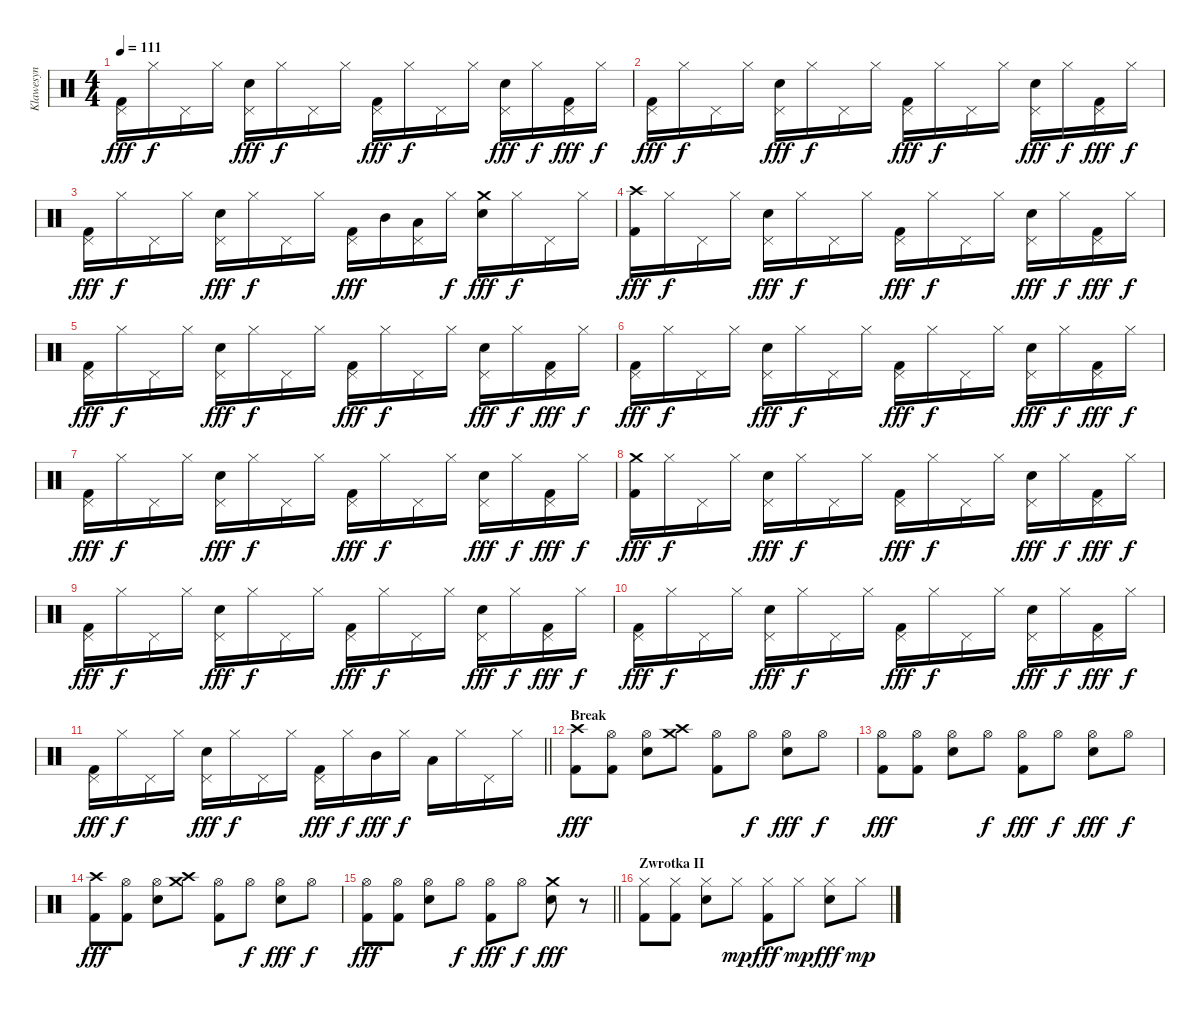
\track ("Klawesyn" "Klawesyn") {instrument percussion}
\staff {score}
\articulation defaults
\ts (4 4)
\tempo 111
\clef neutral
\ks c
("Pedal Hi-Hat (hit)" "Kick (hit) 2").16{dy fff} "Hi-Hat (closed)".16{dy f} "Pedal Hi-Hat (hit)".16 "Hi-Hat (closed)".16 ("Pedal Hi-Hat (hit)" "Snare (hit) 2").16{dy fff} "Hi-Hat (closed)".16{dy f} "Pedal Hi-Hat (hit)".16 "Hi-Hat (closed)".16 ("Pedal Hi-Hat (hit)" "Kick (hit) 2").16{dy fff} "Hi-Hat (closed)".16{dy f} "Pedal Hi-Hat (hit)".16 "Hi-Hat (closed)".16 ("Pedal Hi-Hat (hit)" "Snare (hit) 2").16{dy fff} "Hi-Hat (closed)".16{dy f} ("Pedal Hi-Hat (hit)" "Kick (hit) 2").16{dy fff} "Hi-Hat (closed)".16{dy f} |
("Pedal Hi-Hat (hit)" "Kick (hit) 2").16{dy fff} "Hi-Hat (closed)".16{dy f} "Pedal Hi-Hat (hit)".16 "Hi-Hat (closed)".16 ("Pedal Hi-Hat (hit)" "Snare (hit) 2").16{dy fff} "Hi-Hat (closed)".16{dy f} "Pedal Hi-Hat (hit)".16 "Hi-Hat (closed)".16 ("Pedal Hi-Hat (hit)" "Kick (hit) 2").16{dy fff} "Hi-Hat (closed)".16{dy f} "Pedal Hi-Hat (hit)".16 "Hi-Hat (closed)".16 ("Pedal Hi-Hat (hit)" "Snare (hit) 2").16{dy fff} "Hi-Hat (closed)".16{dy f} ("Pedal Hi-Hat (hit)" "Kick (hit) 2").16{dy fff} "Hi-Hat (closed)".16{dy f} |
("Pedal Hi-Hat (hit)" "Kick (hit) 2").16{dy fff} "Hi-Hat (closed)".16{dy f} "Pedal Hi-Hat (hit)".16 "Hi-Hat (closed)".16 ("Pedal Hi-Hat (hit)" "Snare (hit) 2").16{dy fff} "Hi-Hat (closed)".16{dy f} "Pedal Hi-Hat (hit)".16 "Hi-Hat (closed)".16 ("Pedal Hi-Hat (hit)" "Kick (hit) 2").16{dy fff} "Mid Tom (hit)".16 ("Pedal Hi-Hat (hit)" "Low Tom (hit)").16 "Hi-Hat (closed)".16{dy f} ("Crash medium (hit)" "Snare (hit) 2").16{dy fff} "Hi-Hat (closed)".16{dy f} "Pedal Hi-Hat (hit)".16 "Hi-Hat (closed)".16 |
("Crash high (hit)" "Kick (hit) 2").16{dy fff} "Hi-Hat (closed)".16{dy f} "Pedal Hi-Hat (hit)".16 "Hi-Hat (closed)".16 ("Pedal Hi-Hat (hit)" "Snare (hit) 2").16{dy fff} "Hi-Hat (closed)".16{dy f} "Pedal Hi-Hat (hit)".16 "Hi-Hat (closed)".16 ("Pedal Hi-Hat (hit)" "Kick (hit) 2").16{dy fff} "Hi-Hat (closed)".16{dy f} "Pedal Hi-Hat (hit)".16 "Hi-Hat (closed)".16 ("Pedal Hi-Hat (hit)" "Snare (hit) 2").16{dy fff} "Hi-Hat (closed)".16{dy f} ("Pedal Hi-Hat (hit)" "Kick (hit) 2").16{dy fff} "Hi-Hat (closed)".16{dy f} |
("Pedal Hi-Hat (hit)" "Kick (hit) 2").16{dy fff} "Hi-Hat (closed)".16{dy f} "Pedal Hi-Hat (hit)".16 "Hi-Hat (closed)".16 ("Pedal Hi-Hat (hit)" "Snare (hit) 2").16{dy fff} "Hi-Hat (closed)".16{dy f} "Pedal Hi-Hat (hit)".16 "Hi-Hat (closed)".16 ("Pedal Hi-Hat (hit)" "Kick (hit) 2").16{dy fff} "Hi-Hat (closed)".16{dy f} "Pedal Hi-Hat (hit)".16 "Hi-Hat (closed)".16 ("Pedal Hi-Hat (hit)" "Snare (hit) 2").16{dy fff} "Hi-Hat (closed)".16{dy f} ("Pedal Hi-Hat (hit)" "Kick (hit) 2").16{dy fff} "Hi-Hat (closed)".16{dy f} |
("Pedal Hi-Hat (hit)" "Kick (hit) 2").16{dy fff} "Hi-Hat (closed)".16{dy f} "Pedal Hi-Hat (hit)".16 "Hi-Hat (closed)".16 ("Pedal Hi-Hat (hit)" "Snare (hit) 2").16{dy fff} "Hi-Hat (closed)".16{dy f} "Pedal Hi-Hat (hit)".16 "Hi-Hat (closed)".16 ("Pedal Hi-Hat (hit)" "Kick (hit) 2").16{dy fff} "Hi-Hat (closed)".16{dy f} "Pedal Hi-Hat (hit)".16 "Hi-Hat (closed)".16 ("Pedal Hi-Hat (hit)" "Snare (hit) 2").16{dy fff} "Hi-Hat (closed)".16{dy f} ("Pedal Hi-Hat (hit)" "Kick (hit) 2").16{dy fff} "Hi-Hat (closed)".16{dy f} |
("Pedal Hi-Hat (hit)" "Kick (hit) 2").16{dy fff} "Hi-Hat (closed)".16{dy f} "Pedal Hi-Hat (hit)".16 "Hi-Hat (closed)".16 ("Pedal Hi-Hat (hit)" "Snare (hit) 2").16{dy fff} "Hi-Hat (closed)".16{dy f} "Pedal Hi-Hat (hit)".16 "Hi-Hat (closed)".16 ("Pedal Hi-Hat (hit)" "Kick (hit) 2").16{dy fff} "Hi-Hat (closed)".16{dy f} "Pedal Hi-Hat (hit)".16 "Hi-Hat (closed)".16 ("Pedal Hi-Hat (hit)" "Snare (hit) 2").16{dy fff} "Hi-Hat (closed)".16{dy f} ("Pedal Hi-Hat (hit)" "Kick (hit) 2").16{dy fff} "Hi-Hat (closed)".16{dy f} |
("Crash medium (hit)" "Kick (hit) 2").16{dy fff} "Hi-Hat (closed)".16{dy f} "Pedal Hi-Hat (hit)".16 "Hi-Hat (closed)".16 ("Pedal Hi-Hat (hit)" "Snare (hit) 2").16{dy fff} "Hi-Hat (closed)".16{dy f} "Pedal Hi-Hat (hit)".16 "Hi-Hat (closed)".16 ("Pedal Hi-Hat (hit)" "Kick (hit) 2").16{dy fff} "Hi-Hat (closed)".16{dy f} "Pedal Hi-Hat (hit)".16 "Hi-Hat (closed)".16 ("Pedal Hi-Hat (hit)" "Snare (hit) 2").16{dy fff} "Hi-Hat (closed)".16{dy f} ("Pedal Hi-Hat (hit)" "Kick (hit) 2").16{dy fff} "Hi-Hat (closed)".16{dy f} |
("Pedal Hi-Hat (hit)" "Kick (hit) 2").16{dy fff} "Hi-Hat (closed)".16{dy f} "Pedal Hi-Hat (hit)".16 "Hi-Hat (closed)".16 ("Pedal Hi-Hat (hit)" "Snare (hit) 2").16{dy fff} "Hi-Hat (closed)".16{dy f} "Pedal Hi-Hat (hit)".16 "Hi-Hat (closed)".16 ("Pedal Hi-Hat (hit)" "Kick (hit) 2").16{dy fff} "Hi-Hat (closed)".16{dy f} "Pedal Hi-Hat (hit)".16 "Hi-Hat (closed)".16 ("Pedal Hi-Hat (hit)" "Snare (hit) 2").16{dy fff} "Hi-Hat (closed)".16{dy f} ("Pedal Hi-Hat (hit)" "Kick (hit) 2").16{dy fff} "Hi-Hat (closed)".16{dy f} |
("Pedal Hi-Hat (hit)" "Kick (hit) 2").16{dy fff} "Hi-Hat (closed)".16{dy f} "Pedal Hi-Hat (hit)".16 "Hi-Hat (closed)".16 ("Pedal Hi-Hat (hit)" "Snare (hit) 2").16{dy fff} "Hi-Hat (closed)".16{dy f} "Pedal Hi-Hat (hit)".16 "Hi-Hat (closed)".16 ("Pedal Hi-Hat (hit)" "Kick (hit) 2").16{dy fff} "Hi-Hat (closed)".16{dy f} "Pedal Hi-Hat (hit)".16 "Hi-Hat (closed)".16 ("Pedal Hi-Hat (hit)" "Snare (hit) 2").16{dy fff} "Hi-Hat (closed)".16{dy f} ("Pedal Hi-Hat (hit)" "Kick (hit) 2").16{dy fff} "Hi-Hat (closed)".16{dy f} |
\barLineRight lightlight
("Pedal Hi-Hat (hit)" "Kick (hit) 2").16{dy fff} "Hi-Hat (closed)".16{dy f} "Pedal Hi-Hat (hit)".16 "Hi-Hat (closed)".16 ("Pedal Hi-Hat (hit)" "Snare (hit) 2").16{dy fff} "Hi-Hat (closed)".16{dy f} "Pedal Hi-Hat (hit)".16 "Hi-Hat (closed)".16 ("Pedal Hi-Hat (hit)" "Kick (hit) 2").16{dy fff} "Hi-Hat (closed)".16{dy f} "Mid Tom (hit)".16{dy fff} "Hi-Hat (closed)".16{dy f} "Low Tom (hit)".16 "Hi-Hat (closed)".16 "Pedal Hi-Hat (hit)".16 "Hi-Hat (closed)".16 |
\section ("" "Break")
("Crash high (hit)" "Kick (hit) 2").8{dy fff} ("Hi-Hat (open)" "Kick (hit) 2").8 ("Hi-Hat (open)" "Snare (hit) 2").8 ("Crash high (hit)" "Crash medium (hit)").8 ("Hi-Hat (open)" "Kick (hit) 2").8 "Hi-Hat (open)".8{dy f} ("Hi-Hat (open)" "Snare (hit) 2").8{dy fff} "Hi-Hat (open)".8{dy f} |
("Hi-Hat (open)" "Kick (hit) 2").8{dy fff} ("Hi-Hat (open)" "Kick (hit) 2").8 ("Hi-Hat (open)" "Snare (hit) 2").8 "Hi-Hat (open)".8{dy f} ("Hi-Hat (open)" "Kick (hit) 2").8{dy fff} "Hi-Hat (open)".8{dy f} ("Hi-Hat (open)" "Snare (hit) 2").8{dy fff} "Hi-Hat (open)".8{dy f} |
("Crash high (hit)" "Kick (hit) 2").8{dy fff} ("Hi-Hat (open)" "Kick (hit) 2").8 ("Hi-Hat (open)" "Snare (hit) 2").8 ("Crash high (hit)" "Crash medium (hit)").8 ("Hi-Hat (open)" "Kick (hit) 2").8 "Hi-Hat (open)".8{dy f} ("Hi-Hat (open)" "Snare (hit) 2").8{dy fff} "Hi-Hat (open)".8{dy f} |
\barLineRight lightlight
("Hi-Hat (open)" "Kick (hit) 2").8{dy fff} ("Hi-Hat (open)" "Kick (hit) 2").8 ("Hi-Hat (open)" "Snare (hit) 2").8 "Hi-Hat (open)".8{dy f} ("Hi-Hat (open)" "Kick (hit) 2").8{dy fff} "Hi-Hat (open)".8{dy f} ("Crash medium (hit)" "Snare (hit) 2").8{dy fff} r.8 |
\section ("" "Zwrotka II")
("Hi-Hat (closed)" "Kick (hit) 2").8 ("Hi-Hat (closed)" "Kick (hit) 2").8 ("Hi-Hat (closed)" "Snare (hit) 2").8 "Hi-Hat (closed)".8{dy mp} ("Hi-Hat (closed)" "Kick (hit) 2").8{dy fff} "Hi-Hat (closed)".8{dy mp} ("Hi-Hat (closed)" "Snare (hit) 2").8{dy fff} "Hi-Hat (closed)".8{dy mp}
